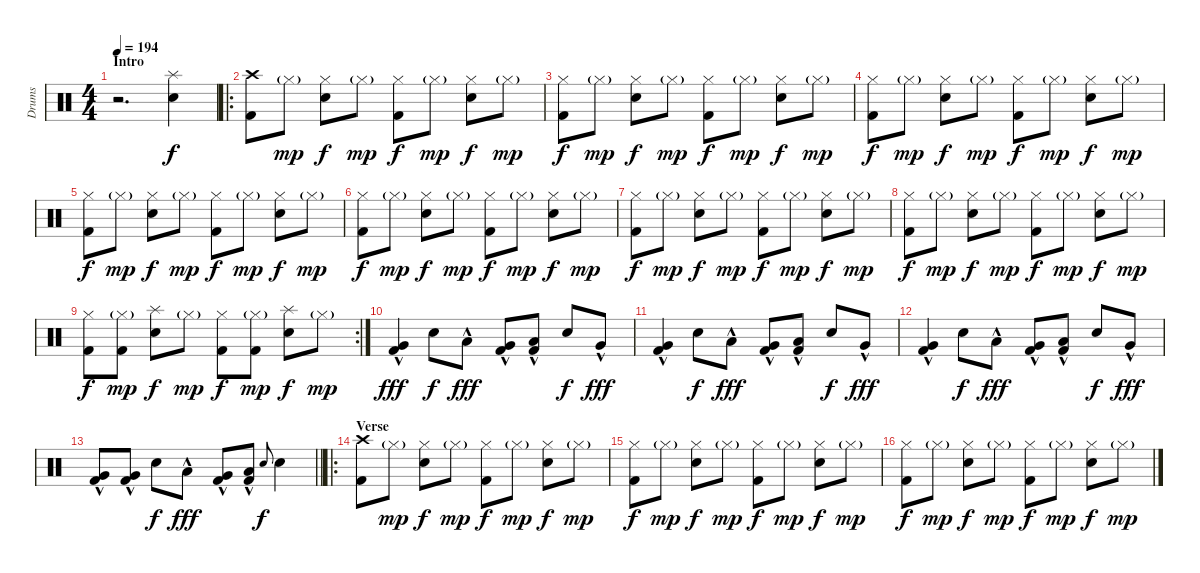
\track ("Drums" "Drums") {instrument percussion}
\staff {score}
\articulation defaults
\ts (4 4)
\section ("" "Intro")
\tempo 194
\clef neutral
\ks c
r.2{d dy f} ("Splash (hit)" "Snare (hit) 2").4 |
\ro
("Crash high (hit)" "Kick (hit) 2").8 "Hi-Hat (closed)"{g}.8{dy mp} ("Hi-Hat (closed)" "Snare (hit) 2").8{dy f} "Hi-Hat (closed)"{g}.8{dy mp} ("Hi-Hat (closed)" "Kick (hit) 2").8{dy f} "Hi-Hat (closed)"{g}.8{dy mp} ("Hi-Hat (closed)" "Snare (hit) 2").8{dy f} "Hi-Hat (closed)"{g}.8{dy mp} |
("Hi-Hat (closed)" "Kick (hit) 2").8{dy f} "Hi-Hat (closed)"{g}.8{dy mp} ("Hi-Hat (closed)" "Snare (hit) 2").8{dy f} "Hi-Hat (closed)"{g}.8{dy mp} ("Hi-Hat (closed)" "Kick (hit) 2").8{dy f} "Hi-Hat (closed)"{g}.8{dy mp} ("Hi-Hat (closed)" "Snare (hit) 2").8{dy f} "Hi-Hat (closed)"{g}.8{dy mp} |
("Hi-Hat (closed)" "Kick (hit) 2").8{dy f} "Hi-Hat (closed)"{g}.8{dy mp} ("Hi-Hat (closed)" "Snare (hit) 2").8{dy f} "Hi-Hat (closed)"{g}.8{dy mp} ("Hi-Hat (closed)" "Kick (hit) 2").8{dy f} "Hi-Hat (closed)"{g}.8{dy mp} ("Hi-Hat (closed)" "Snare (hit) 2").8{dy f} "Hi-Hat (closed)"{g}.8{dy mp} |
("Hi-Hat (closed)" "Kick (hit) 2").8{dy f} "Hi-Hat (closed)"{g}.8{dy mp} ("Hi-Hat (closed)" "Snare (hit) 2").8{dy f} "Hi-Hat (closed)"{g}.8{dy mp} ("Hi-Hat (closed)" "Kick (hit) 2").8{dy f} "Hi-Hat (closed)"{g}.8{dy mp} ("Hi-Hat (closed)" "Snare (hit) 2").8{dy f} "Hi-Hat (closed)"{g}.8{dy mp} |
("Hi-Hat (closed)" "Kick (hit) 2").8{dy f} "Hi-Hat (closed)"{g}.8{dy mp} ("Hi-Hat (closed)" "Snare (hit) 2").8{dy f} "Hi-Hat (closed)"{g}.8{dy mp} ("Hi-Hat (closed)" "Kick (hit) 2").8{dy f} "Hi-Hat (closed)"{g}.8{dy mp} ("Hi-Hat (closed)" "Snare (hit) 2").8{dy f} "Hi-Hat (closed)"{g}.8{dy mp} |
("Hi-Hat (closed)" "Kick (hit) 2").8{dy f} "Hi-Hat (closed)"{g}.8{dy mp} ("Hi-Hat (closed)" "Snare (hit) 2").8{dy f} "Hi-Hat (closed)"{g}.8{dy mp} ("Hi-Hat (closed)" "Kick (hit) 2").8{dy f} "Hi-Hat (closed)"{g}.8{dy mp} ("Hi-Hat (closed)" "Snare (hit) 2").8{dy f} "Hi-Hat (closed)"{g}.8{dy mp} |
("Hi-Hat (closed)" "Kick (hit) 2").8{dy f} "Hi-Hat (closed)"{g}.8{dy mp} ("Hi-Hat (closed)" "Snare (hit) 2").8{dy f} "Hi-Hat (closed)"{g}.8{dy mp} ("Hi-Hat (closed)" "Kick (hit) 2").8{dy f} "Hi-Hat (closed)"{g}.8{dy mp} ("Hi-Hat (closed)" "Snare (hit) 2").8{dy f} "Hi-Hat (closed)"{g}.8{dy mp} |
\rc 2
("Hi-Hat (closed)" "Kick (hit) 2").8{dy f} ("Hi-Hat (closed)"{g} "Kick (hit) 2").8{dy mp} ("Splash (hit)" "Snare (hit) 2").8{dy f} "Hi-Hat (closed)"{g}.8{dy mp} ("Hi-Hat (closed)" "Kick (hit) 2").8{dy f} ("Hi-Hat (closed)"{g} "Kick (hit) 2").8{dy mp} ("Splash (hit)" "Snare (hit) 2").8{dy f} "Hi-Hat (closed)"{g}.8{dy mp} |
("Very Low Tom (hit)"{hac} "Kick (hit) 2").4{dy fff} "Snare (hit) 2".8{dy f} "Low Tom (hit)"{hac}.8{dy fff} ("Very Low Tom (hit)"{hac} "Kick (hit) 2").8 ("Low Floor Tom (hit)"{hac} "Kick (hit) 2").8 "Snare (hit) 2".8{dy f} "Very Low Tom (hit)"{hac}.8{dy fff} |
("Very Low Tom (hit)"{hac} "Kick (hit) 2").4 "Snare (hit) 2".8{dy f} "Low Tom (hit)"{hac}.8{dy fff} ("Very Low Tom (hit)"{hac} "Kick (hit) 2").8 ("Low Floor Tom (hit)"{hac} "Kick (hit) 2").8 "Snare (hit) 2".8{dy f} "Very Low Tom (hit)"{hac}.8{dy fff} |
("Very Low Tom (hit)"{hac} "Kick (hit) 2").4 "Snare (hit) 2".8{dy f} "Low Tom (hit)"{hac}.8{dy fff} ("Very Low Tom (hit)"{hac} "Kick (hit) 2").8 ("Low Floor Tom (hit)"{hac} "Kick (hit) 2").8 "Snare (hit) 2".8{dy f} "Very Low Tom (hit)"{hac}.8{dy fff} |
\barLineRight lightlight
("Very Low Tom (hit)"{hac} "Kick (hit) 2").8 ("Very Low Tom (hit)"{hac} "Kick (hit) 2").8 "Snare (hit) 2".8{dy f} "Low Tom (hit)"{hac}.8{dy fff} ("Very Low Tom (hit)"{hac} "Kick (hit) 2").8 ("Low Floor Tom (hit)"{hac} "Kick (hit) 2").8 "Snare (hit) 2".8{gr onbeat dy f} "Snare (hit) 2".4 |
\ro
\section ("" "Verse")
("Crash high (hit)" "Kick (hit) 2").8 "Hi-Hat (closed)"{g}.8{dy mp} ("Hi-Hat (closed)" "Snare (hit) 2").8{dy f} "Hi-Hat (closed)"{g}.8{dy mp} ("Hi-Hat (closed)" "Kick (hit) 2").8{dy f} "Hi-Hat (closed)"{g}.8{dy mp} ("Hi-Hat (closed)" "Snare (hit) 2").8{dy f} "Hi-Hat (closed)"{g}.8{dy mp} |
("Hi-Hat (closed)" "Kick (hit) 2").8{dy f} "Hi-Hat (closed)"{g}.8{dy mp} ("Hi-Hat (closed)" "Snare (hit) 2").8{dy f} "Hi-Hat (closed)"{g}.8{dy mp} ("Hi-Hat (closed)" "Kick (hit) 2").8{dy f} "Hi-Hat (closed)"{g}.8{dy mp} ("Hi-Hat (closed)" "Snare (hit) 2").8{dy f} "Hi-Hat (closed)"{g}.8{dy mp} |
("Hi-Hat (closed)" "Kick (hit) 2").8{dy f} "Hi-Hat (closed)"{g}.8{dy mp} ("Hi-Hat (closed)" "Snare (hit) 2").8{dy f} "Hi-Hat (closed)"{g}.8{dy mp} ("Hi-Hat (closed)" "Kick (hit) 2").8{dy f} "Hi-Hat (closed)"{g}.8{dy mp} ("Hi-Hat (closed)" "Snare (hit) 2").8{dy f} "Hi-Hat (closed)"{g}.8{dy mp}
